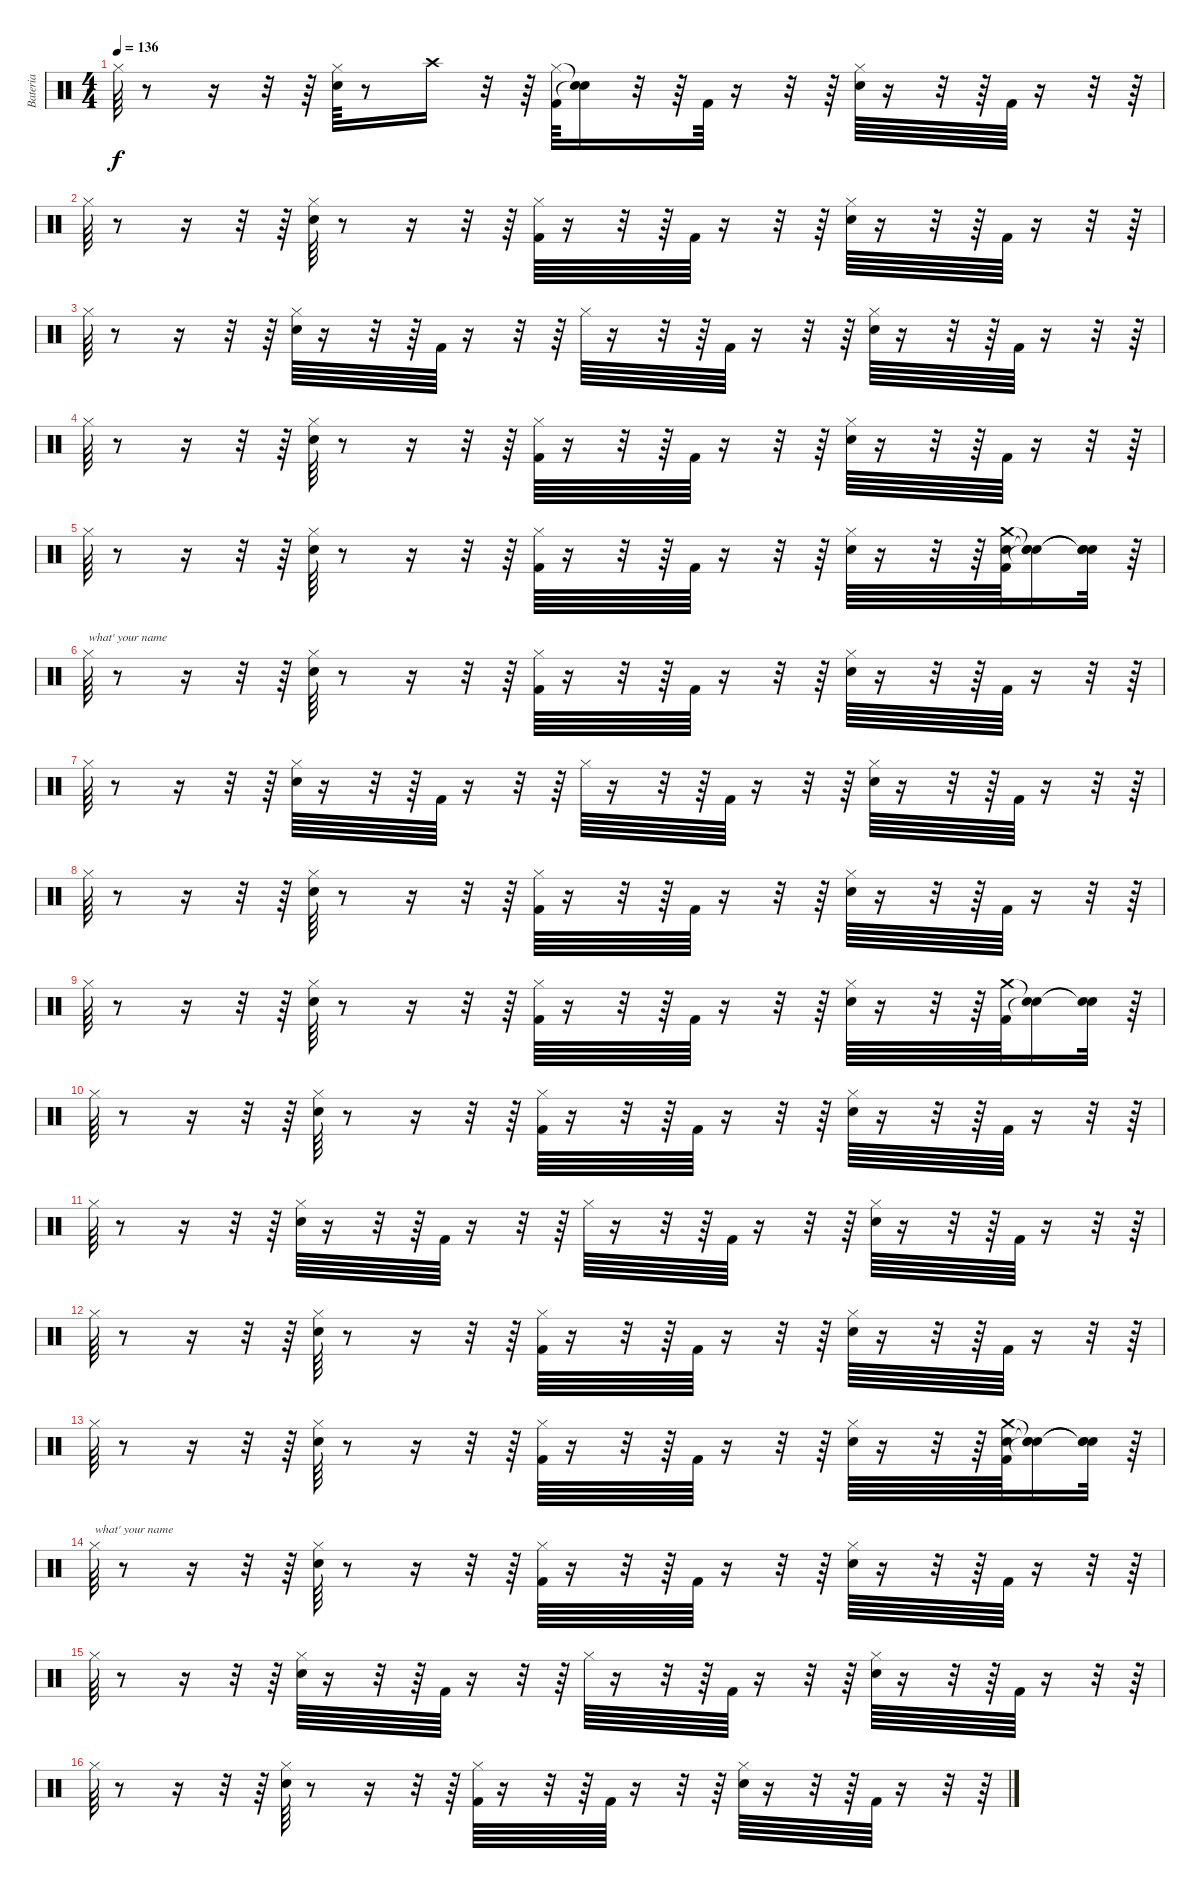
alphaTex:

\track ("Bateria" "Bateria") {instrument percussion}
\staff {score}
\articulation defaults
\ts (4 4)
\tempo 136
\clef neutral
\ks c "Hi-Hat (closed)".64{dy f}
r.8 r.16 r.32 r.64 ("Snare (hit) 2" "Hi-Hat (closed)").64 r.8 "Crash high (hit)".16 r.32 r.64 ("Kick (hit) 2" "Hi-Hat (closed)").64 ("Snare (hit)"{t} "Snare (hit)"{t}).16 r.32 r.64 "Kick (hit) 2".64 r.16 r.32 r.64 ("Snare (hit) 2" "Hi-Hat (closed)").64 r.16 r.32 r.64 "Kick (hit) 2".64 r.16 r.32 r.64 |
"Hi-Hat (closed)".64 r.8 r.16 r.32 r.64 ("Snare (hit) 2" "Hi-Hat (closed)").64 r.8 r.16 r.32 r.64 ("Kick (hit) 2" "Hi-Hat (closed)").64 r.16 r.32 r.64 "Kick (hit) 2".64 r.16 r.32 r.64 ("Snare (hit) 2" "Hi-Hat (closed)").64 r.16 r.32 r.64 "Kick (hit) 2".64 r.16 r.32 r.64 |
"Hi-Hat (closed)".64 r.8 r.16 r.32 r.64 ("Snare (hit) 2" "Hi-Hat (closed)").64 r.16 r.32 r.64 "Kick (hit) 2".64 r.16 r.32 r.64 "Hi-Hat (closed)".64 r.16 r.32 r.64 "Kick (hit) 2".64 r.16 r.32 r.64 ("Snare (hit) 2" "Hi-Hat (closed)").64 r.16 r.32 r.64 "Kick (hit) 2".64 r.16 r.32 r.64 |
"Hi-Hat (closed)".64 r.8 r.16 r.32 r.64 ("Snare (hit) 2" "Hi-Hat (closed)").64 r.8 r.16 r.32 r.64 ("Kick (hit) 2" "Hi-Hat (closed)").64 r.16 r.32 r.64 "Kick (hit) 2".64 r.16 r.32 r.64 ("Snare (hit) 2" "Hi-Hat (closed)").64 r.16 r.32 r.64 "Kick (hit) 2".64 r.16 r.32 r.64 |
"Hi-Hat (closed)".64 r.8 r.16 r.32 r.64 ("Snare (hit) 2" "Hi-Hat (closed)").64 r.8 r.16 r.32 r.64 ("Kick (hit) 2" "Hi-Hat (closed)").64 r.16 r.32 r.64 "Kick (hit) 2".64 r.16 r.32 r.64 ("Snare (hit) 2" "Hi-Hat (closed)").64 r.16 r.32 r.64 ("Kick (hit) 2" "Snare (hit) 2" "Crash medium (hit)").64 ("Snare (hit)"{t} "Snare (hit)"{t} "Snare (hit)"{t}).16 ("Snare (hit)"{t} "Snare (hit)"{t} "Snare (hit)"{t}).32 r.64 |
"Hi-Hat (closed)".64{txt "what' your name"} r.8 r.16 r.32 r.64 ("Snare (hit) 2" "Hi-Hat (closed)").64 r.8 r.16 r.32 r.64 ("Kick (hit) 2" "Hi-Hat (closed)").64 r.16 r.32 r.64 "Kick (hit) 2".64 r.16 r.32 r.64 ("Snare (hit) 2" "Hi-Hat (closed)").64 r.16 r.32 r.64 "Kick (hit) 2".64 r.16 r.32 r.64 |
"Hi-Hat (closed)".64 r.8 r.16 r.32 r.64 ("Snare (hit) 2" "Hi-Hat (closed)").64 r.16 r.32 r.64 "Kick (hit) 2".64 r.16 r.32 r.64 "Hi-Hat (closed)".64 r.16 r.32 r.64 "Kick (hit) 2".64 r.16 r.32 r.64 ("Snare (hit) 2" "Hi-Hat (closed)").64 r.16 r.32 r.64 "Kick (hit) 2".64 r.16 r.32 r.64 |
"Hi-Hat (closed)".64 r.8 r.16 r.32 r.64 ("Snare (hit) 2" "Hi-Hat (closed)").64 r.8 r.16 r.32 r.64 ("Kick (hit) 2" "Hi-Hat (closed)").64 r.16 r.32 r.64 "Kick (hit) 2".64 r.16 r.32 r.64 ("Snare (hit) 2" "Hi-Hat (closed)").64 r.16 r.32 r.64 "Kick (hit) 2".64 r.16 r.32 r.64 |
"Hi-Hat (closed)".64 r.8 r.16 r.32 r.64 ("Snare (hit) 2" "Hi-Hat (closed)").64 r.8 r.16 r.32 r.64 ("Kick (hit) 2" "Hi-Hat (closed)").64 r.16 r.32 r.64 "Kick (hit) 2".64 r.16 r.32 r.64 ("Snare (hit) 2" "Hi-Hat (closed)").64 r.16 r.32 r.64 ("Kick (hit) 2" "Crash medium (hit)").64 ("Snare (hit)"{t} "Snare (hit)"{t}).16 ("Snare (hit)"{t} "Snare (hit)"{t}).32 r.64 |
"Hi-Hat (closed)".64 r.8 r.16 r.32 r.64 ("Snare (hit) 2" "Hi-Hat (closed)").64 r.8 r.16 r.32 r.64 ("Kick (hit) 2" "Hi-Hat (closed)").64 r.16 r.32 r.64 "Kick (hit) 2".64 r.16 r.32 r.64 ("Snare (hit) 2" "Hi-Hat (closed)").64 r.16 r.32 r.64 "Kick (hit) 2".64 r.16 r.32 r.64 |
"Hi-Hat (closed)".64 r.8 r.16 r.32 r.64 ("Snare (hit) 2" "Hi-Hat (closed)").64 r.16 r.32 r.64 "Kick (hit) 2".64 r.16 r.32 r.64 "Hi-Hat (closed)".64 r.16 r.32 r.64 "Kick (hit) 2".64 r.16 r.32 r.64 ("Snare (hit) 2" "Hi-Hat (closed)").64 r.16 r.32 r.64 "Kick (hit) 2".64 r.16 r.32 r.64 |
"Hi-Hat (closed)".64 r.8 r.16 r.32 r.64 ("Snare (hit) 2" "Hi-Hat (closed)").64 r.8 r.16 r.32 r.64 ("Kick (hit) 2" "Hi-Hat (closed)").64 r.16 r.32 r.64 "Kick (hit) 2".64 r.16 r.32 r.64 ("Snare (hit) 2" "Hi-Hat (closed)").64 r.16 r.32 r.64 "Kick (hit) 2".64 r.16 r.32 r.64 |
"Hi-Hat (closed)".64 r.8 r.16 r.32 r.64 ("Snare (hit) 2" "Hi-Hat (closed)").64 r.8 r.16 r.32 r.64 ("Kick (hit) 2" "Hi-Hat (closed)").64 r.16 r.32 r.64 "Kick (hit) 2".64 r.16 r.32 r.64 ("Snare (hit) 2" "Hi-Hat (closed)").64 r.16 r.32 r.64 ("Kick (hit) 2" "Snare (hit) 2" "Crash medium (hit)").64 ("Snare (hit)"{t} "Snare (hit)"{t} "Snare (hit)"{t}).16 ("Snare (hit)"{t} "Snare (hit)"{t} "Snare (hit)"{t}).32 r.64 |
"Hi-Hat (closed)".64{txt "what' your name"} r.8 r.16 r.32 r.64 ("Snare (hit) 2" "Hi-Hat (closed)").64 r.8 r.16 r.32 r.64 ("Kick (hit) 2" "Hi-Hat (closed)").64 r.16 r.32 r.64 "Kick (hit) 2".64 r.16 r.32 r.64 ("Snare (hit) 2" "Hi-Hat (closed)").64 r.16 r.32 r.64 "Kick (hit) 2".64 r.16 r.32 r.64 |
"Hi-Hat (closed)".64 r.8 r.16 r.32 r.64 ("Snare (hit) 2" "Hi-Hat (closed)").64 r.16 r.32 r.64 "Kick (hit) 2".64 r.16 r.32 r.64 "Hi-Hat (closed)".64 r.16 r.32 r.64 "Kick (hit) 2".64 r.16 r.32 r.64 ("Snare (hit) 2" "Hi-Hat (closed)").64 r.16 r.32 r.64 "Kick (hit) 2".64 r.16 r.32 r.64 |
"Hi-Hat (closed)".64 r.8 r.16 r.32 r.64 ("Snare (hit) 2" "Hi-Hat (closed)").64 r.8 r.16 r.32 r.64 ("Kick (hit) 2" "Hi-Hat (closed)").64 r.16 r.32 r.64 "Kick (hit) 2".64 r.16 r.32 r.64 ("Snare (hit) 2" "Hi-Hat (closed)").64 r.16 r.32 r.64 "Kick (hit) 2".64 r.16 r.32 r.64
